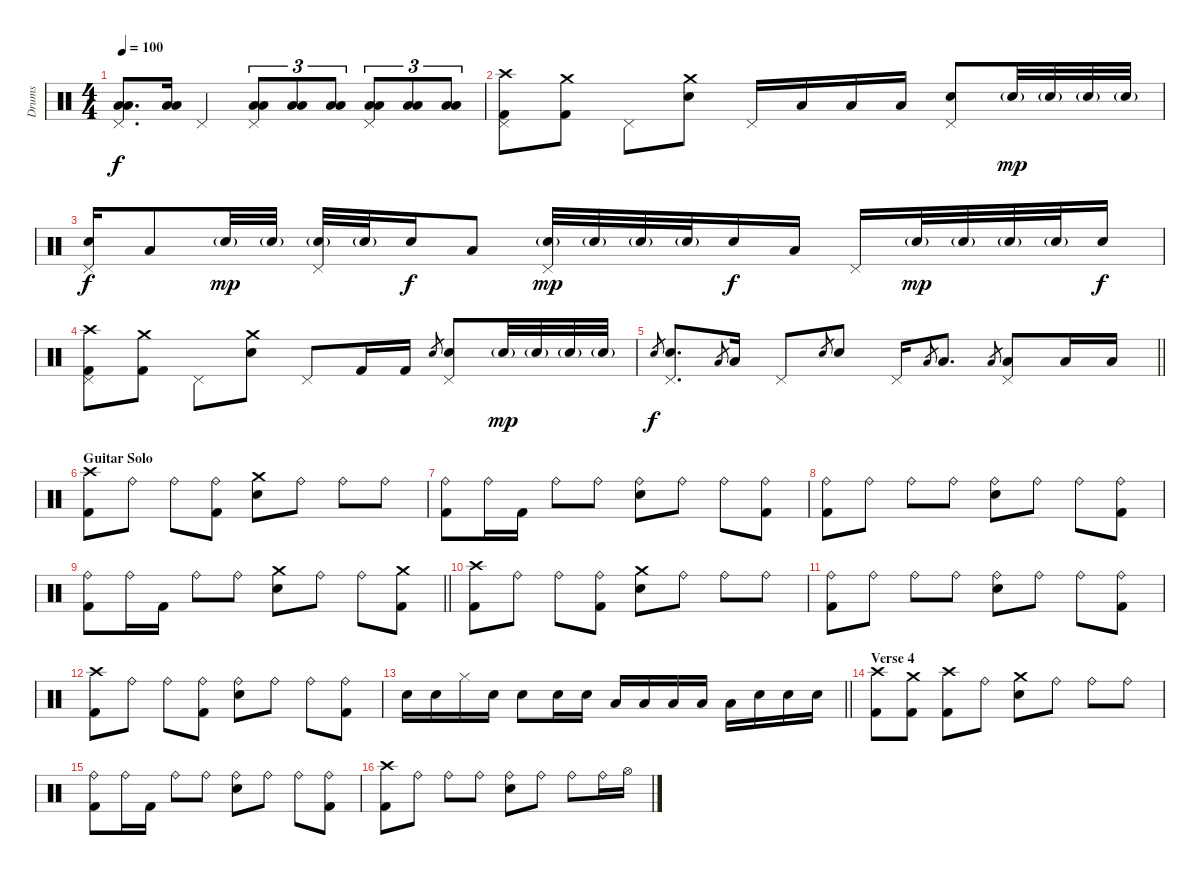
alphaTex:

\track ("Drums" "Drums") {instrument percussion}
\staff {score}
\articulation defaults
\ts (4 4)
\tempo 100
\clef neutral
\ks c
("Pedal Hi-Hat (hit)" "Low Tom (hit)" "Low Floor Tom (hit)").8{d dy f} ("Low Tom (hit)" "Low Floor Tom (hit)").16 "Pedal Hi-Hat (hit)".4 ("Pedal Hi-Hat (hit)" "Low Tom (hit)" "Low Floor Tom (hit)").8{tu (3 2)} ("Low Tom (hit)" "Low Floor Tom (hit)").8{tu (3 2)} ("Low Tom (hit)" "Low Floor Tom (hit)").8{tu (3 2)} ("Pedal Hi-Hat (hit)" "Low Tom (hit)" "Low Floor Tom (hit)").8{tu (3 2)} ("Low Tom (hit)" "Low Floor Tom (hit)").8{tu (3 2)} ("Low Tom (hit)" "Low Floor Tom (hit)").8{tu (3 2)} |
("Crash high (hit)" "Pedal Hi-Hat (hit)" "Kick (hit) 2").8 ("Crash medium (hit)" "Kick (hit) 2").8 "Pedal Hi-Hat (hit)".8 ("Crash medium (hit)" "Snare (hit) 2").8 "Pedal Hi-Hat (hit)".16 "Low Tom (hit)".16 "Low Tom (hit)".16 "Low Tom (hit)".16 ("Pedal Hi-Hat (hit)" "Snare (hit) 2").8 "Snare (hit) 2"{g}.32{dy mp} "Snare (hit) 2"{g}.32 "Snare (hit) 2"{g}.32 "Snare (hit) 2"{g}.32 |
("Pedal Hi-Hat (hit)" "Snare (hit) 2").16{dy f} "Low Tom (hit)".8 "Snare (hit) 2"{g}.32{dy mp} "Snare (hit) 2"{g}.32 ("Pedal Hi-Hat (hit)" "Snare (hit) 2"{g}).32 "Snare (hit) 2"{g}.32 "Snare (hit) 2".16{dy f} "Low Tom (hit)".8 ("Pedal Hi-Hat (hit)" "Snare (hit) 2"{g}).32{dy mp} "Snare (hit) 2"{g}.32 "Snare (hit) 2"{g}.32 "Snare (hit) 2"{g}.32 "Snare (hit) 2".16{dy f} "Low Tom (hit)".16 "Pedal Hi-Hat (hit)".16 "Snare (hit) 2"{g}.32{dy mp} "Snare (hit) 2"{g}.32 "Snare (hit) 2"{g}.32 "Snare (hit) 2"{g}.32 "Snare (hit) 2".16{dy f} |
("Crash high (hit)" "Pedal Hi-Hat (hit)" "Kick (hit) 2").8 ("Crash medium (hit)" "Kick (hit) 2").8 "Pedal Hi-Hat (hit)".8 ("Crash medium (hit)" "Snare (hit) 2").8 "Pedal Hi-Hat (hit)".8 "Kick (hit) 2".16 "Kick (hit) 2".16 "Snare (hit) 2".8{gr} ("Pedal Hi-Hat (hit)" "Snare (hit) 2").8 "Snare (hit) 2"{g}.32{dy mp} "Snare (hit) 2"{g}.32 "Snare (hit) 2"{g}.32 "Snare (hit) 2"{g}.32 |
\barLineRight lightlight "Snare (hit) 2".8{gr dy f}
("Pedal Hi-Hat (hit)" "Snare (hit) 2").8{d} "Low Tom (hit)".8{gr} "Low Tom (hit)".16 "Pedal Hi-Hat (hit)".8 "Snare (hit) 2".8{gr} "Snare (hit) 2".8 "Pedal Hi-Hat (hit)".16 "Low Tom (hit)".8{gr} "Low Tom (hit)".8{d} "Low Floor Tom (hit)".8{gr} ("Pedal Hi-Hat (hit)" "Low Floor Tom (hit)").8 "Low Floor Tom (hit)".16 "Low Floor Tom (hit)".16 |
\section ("" "Guitar Solo")
("Crash high (hit)" "Kick (hit) 2").8 "Ride (bell)".8 "Ride (bell)".8 ("Ride (bell)" "Kick (hit) 2").8 ("Crash medium (hit)" "Snare (hit) 2").8 "Ride (bell)".8 "Ride (bell)".8 "Ride (bell)".8 |
("Ride (bell)" "Kick (hit) 2").8 "Ride (bell)".16 "Kick (hit) 2".16 "Ride (bell)".8 "Ride (bell)".8 ("Ride (bell)" "Snare (hit) 2").8 "Ride (bell)".8 "Ride (bell)".8 ("Ride (bell)" "Kick (hit) 2").8 |
("Ride (bell)" "Kick (hit) 2").8 "Ride (bell)".8 "Ride (bell)".8 "Ride (bell)".8 ("Ride (bell)" "Snare (hit) 2").8 "Ride (bell)".8 "Ride (bell)".8 ("Ride (bell)" "Kick (hit) 2").8 |
\barLineRight lightlight
("Ride (bell)" "Kick (hit) 2").8 "Ride (bell)".16 "Kick (hit) 2".16 "Ride (bell)".8 "Ride (bell)".8 ("Crash medium (hit)" "Snare (hit) 2").8 "Ride (bell)".8 "Ride (bell)".8 ("Crash medium (hit)" "Kick (hit) 2").8 |
("Crash high (hit)" "Kick (hit) 2").8 "Ride (bell)".8 "Ride (bell)".8 ("Ride (bell)" "Kick (hit) 2").8 ("Crash medium (hit)" "Snare (hit) 2").8 "Ride (bell)".8 "Ride (bell)".8 "Ride (bell)".8 |
("Ride (bell)" "Kick (hit) 2").8 "Ride (bell)".8 "Ride (bell)".8 "Ride (bell)".8 ("Ride (bell)" "Snare (hit) 2").8 "Ride (bell)".8 "Ride (bell)".8 ("Ride (bell)" "Kick (hit) 2").8 |
("Crash high (hit)" "Kick (hit) 2").8 "Ride (bell)".8 "Ride (bell)".8 ("Ride (bell)" "Kick (hit) 2").8 ("Ride (bell)" "Snare (hit) 2").8 "Ride (bell)".8 "Ride (bell)".8 ("Ride (bell)" "Kick (hit) 2").8 |
\barLineRight lightlight "Snare (hit) 2".16 "Snare (hit) 2".16 "Hi-Hat (closed)".16 "Snare (hit) 2".16 "Snare (hit) 2".8 "Snare (hit) 2".16 "Snare (hit) 2".16 "Low Tom (hit)".16 "Low Tom (hit)".16 "Low Floor Tom (hit)".16 "Low Floor Tom (hit)".16 "Low Floor Tom (hit)".16 "Snare (hit) 2".16 "Snare (hit) 2".16 "Snare (hit) 2".16
|
\section ("" "Verse 4")
("Crash high (hit)" "Kick (hit) 2").8 ("Crash medium (hit)" "Kick (hit) 2").8 ("Crash high (hit)" "Kick (hit) 2").8 "Ride (bell)".8 ("Crash medium (hit)" "Snare (hit) 2").8 "Ride (bell)".8 "Ride (bell)".8 "Ride (bell)".8 |
("Ride (bell)" "Kick (hit) 2").8 "Ride (bell)".16 "Kick (hit) 2".16 "Ride (bell)".8 "Ride (bell)".8 ("Ride (bell)" "Snare (hit) 2").8 "Ride (bell)".8 "Ride (bell)".8 ("Ride (bell)" "Kick (hit) 2").8 |
("Crash high (hit)" "Kick (hit) 2").8 "Ride (bell)".8 "Ride (bell)".8 "Ride (bell)".8 ("Ride (bell)" "Snare (hit) 2").8 "Ride (bell)".8 "Ride (bell)".8 "Ride (bell)".16 "Hi-Hat (open)".16
